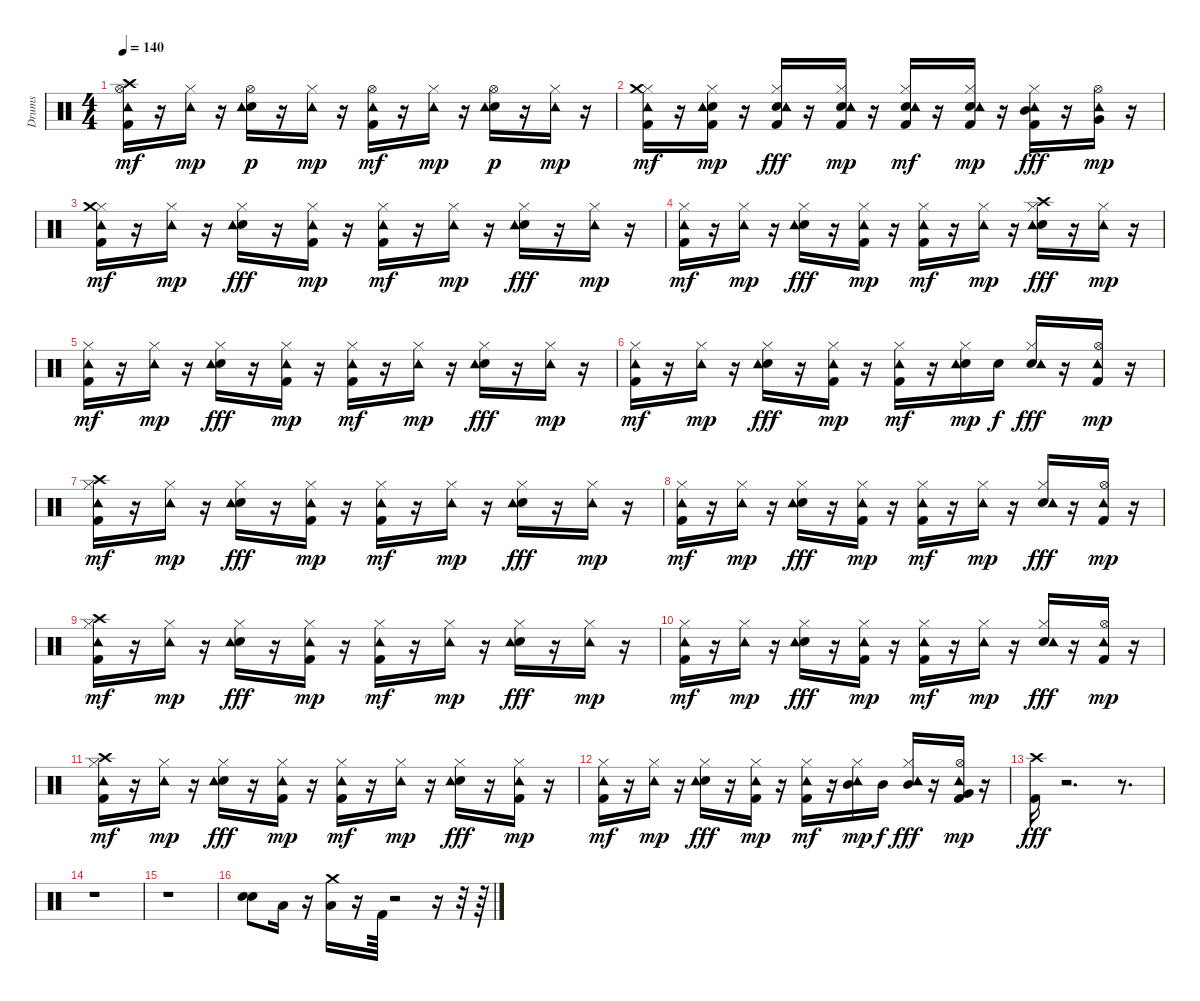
\track ("Drums" "Drums") {instrument percussion}
\staff {score}
\articulation defaults
\ts (4 4)
\tempo 140
\clef neutral
\ks c
("Kick (hit) 2" "Hi-Hat (open)" "Crash high (hit)" "Tambourine (hit)").16{dy mf} r.16 ("Hi-Hat (closed)" "Tambourine (hit)").16{dy mp} r.16 ("Electric Snare (hit)" "Hi-Hat (open)" "Tambourine (hit)").16{dy p} r.16 ("Hi-Hat (closed)" "Tambourine (hit)").16{dy mp} r.16 ("Kick (hit) 2" "Hi-Hat (open)" "Tambourine (hit)").16{dy mf} r.16 ("Hi-Hat (closed)" "Tambourine (hit)").16{dy mp} r.16 ("Electric Snare (hit)" "Hi-Hat (open)" "Tambourine (hit)").16{dy p} r.16 ("Hi-Hat (closed)" "Tambourine (hit)").16{dy mp} r.16 |
("Kick (hit) 2" "Hi-Hat (closed)" "Crash medium (hit)" "Tambourine (hit)").16{dy mf} r.16 ("Kick (hit) 2" "Electric Snare (hit)" "Hi-Hat (closed)" "Tambourine (hit)").16{dy mp} r.16 ("Kick (hit) 2" "Electric Snare (hit)" "Hi-Hat (closed)" "Tambourine (hit)").16{dy fff} r.16 ("Kick (hit) 2" "Electric Snare (hit)" "Hi-Hat (closed)" "Tambourine (hit)").16{dy mp} r.16 ("Kick (hit) 2" "Electric Snare (hit)" "Hi-Hat (closed)" "Tambourine (hit)").16{dy mf} r.16 ("Kick (hit) 2" "Electric Snare (hit)" "Hi-Hat (closed)" "Tambourine (hit)").16{dy mp} r.16 ("Kick (hit) 2" "Mid Tom (hit)" "Hi-Hat (closed)" "Tambourine (hit)").16{dy fff} r.16 ("Very Low Tom (hit)" "Hi-Hat (open)" "Tambourine (hit)").16{dy mp} r.16 |
("Kick (hit) 2" "Hi-Hat (closed)" "Crash medium (hit)" "Tambourine (hit)").16{dy mf} r.16 ("Hi-Hat (closed)" "Tambourine (hit)").16{dy mp} r.16 ("Electric Snare (hit)" "Hi-Hat (closed)" "Tambourine (hit)").16{dy fff} r.16 ("Kick (hit) 2" "Hi-Hat (closed)" "Tambourine (hit)").16{dy mp} r.16 ("Kick (hit) 2" "Hi-Hat (closed)" "Tambourine (hit)").16{dy mf} r.16 ("Hi-Hat (closed)" "Tambourine (hit)").16{dy mp} r.16 ("Electric Snare (hit)" "Hi-Hat (closed)" "Tambourine (hit)").16{dy fff} r.16 ("Hi-Hat (closed)" "Tambourine (hit)").16{dy mp} r.16 |
("Kick (hit) 2" "Hi-Hat (closed)" "Tambourine (hit)").16{dy mf} r.16 ("Hi-Hat (closed)" "Tambourine (hit)").16{dy mp} r.16 ("Electric Snare (hit)" "Hi-Hat (closed)" "Tambourine (hit)").16{dy fff} r.16 ("Kick (hit) 2" "Hi-Hat (closed)" "Tambourine (hit)").16{dy mp} r.16 ("Kick (hit) 2" "Hi-Hat (closed)" "Tambourine (hit)").16{dy mf} r.16 ("Hi-Hat (closed)" "Tambourine (hit)").16{dy mp} r.16 ("Electric Snare (hit)" "Hi-Hat (closed)" "Crash high (hit)" "Tambourine (hit)").16{dy fff} r.16 ("Hi-Hat (closed)" "Tambourine (hit)").16{dy mp} r.16 |
("Kick (hit) 2" "Hi-Hat (closed)" "Tambourine (hit)").16{dy mf} r.16 ("Hi-Hat (closed)" "Tambourine (hit)").16{dy mp} r.16 ("Electric Snare (hit)" "Hi-Hat (closed)" "Tambourine (hit)").16{dy fff} r.16 ("Kick (hit) 2" "Hi-Hat (closed)" "Tambourine (hit)").16{dy mp} r.16 ("Kick (hit) 2" "Hi-Hat (closed)" "Tambourine (hit)").16{dy mf} r.16 ("Hi-Hat (closed)" "Tambourine (hit)").16{dy mp} r.16 ("Electric Snare (hit)" "Hi-Hat (closed)" "Tambourine (hit)").16{dy fff} r.16 ("Hi-Hat (closed)" "Tambourine (hit)").16{dy mp} r.16 |
("Kick (hit) 2" "Hi-Hat (closed)" "Tambourine (hit)").16{dy mf} r.16 ("Hi-Hat (closed)" "Tambourine (hit)").16{dy mp} r.16 ("Electric Snare (hit)" "Hi-Hat (closed)" "Tambourine (hit)").16{dy fff} r.16 ("Kick (hit) 2" "Hi-Hat (closed)" "Tambourine (hit)").16{dy mp} r.16 ("Kick (hit) 2" "Hi-Hat (closed)" "Tambourine (hit)").16{dy mf} r.16 ("Electric Snare (hit)" "Hi-Hat (closed)" "Tambourine (hit)").16{dy mp} "Electric Snare (hit)".16{dy f} ("Electric Snare (hit)" "Hi-Hat (closed)" "Tambourine (hit)").16{dy fff} r.16 ("Kick (hit) 2" "Hi-Hat (open)" "Tambourine (hit)").16{dy mp} r.16 |
("Kick (hit) 2" "Hi-Hat (closed)" "Crash high (hit)" "Tambourine (hit)").16{dy mf} r.16 ("Hi-Hat (closed)" "Tambourine (hit)").16{dy mp} r.16 ("Electric Snare (hit)" "Hi-Hat (closed)" "Tambourine (hit)").16{dy fff} r.16 ("Kick (hit) 2" "Hi-Hat (closed)" "Tambourine (hit)").16{dy mp} r.16 ("Kick (hit) 2" "Hi-Hat (closed)" "Tambourine (hit)").16{dy mf} r.16 ("Hi-Hat (closed)" "Tambourine (hit)").16{dy mp} r.16 ("Electric Snare (hit)" "Hi-Hat (closed)" "Tambourine (hit)").16{dy fff} r.16 ("Hi-Hat (closed)" "Tambourine (hit)").16{dy mp} r.16 |
("Kick (hit) 2" "Hi-Hat (closed)" "Tambourine (hit)").16{dy mf} r.16 ("Hi-Hat (closed)" "Tambourine (hit)").16{dy mp} r.16 ("Electric Snare (hit)" "Hi-Hat (closed)" "Tambourine (hit)").16{dy fff} r.16 ("Kick (hit) 2" "Hi-Hat (closed)" "Tambourine (hit)").16{dy mp} r.16 ("Kick (hit) 2" "Hi-Hat (closed)" "Tambourine (hit)").16{dy mf} r.16 ("Hi-Hat (closed)" "Tambourine (hit)").16{dy mp} r.16 ("Electric Snare (hit)" "Hi-Hat (closed)" "Tambourine (hit)").16{dy fff} r.16 ("Kick (hit) 2" "Hi-Hat (open)" "Tambourine (hit)").16{dy mp} r.16 |
("Kick (hit) 2" "Hi-Hat (closed)" "Crash high (hit)" "Tambourine (hit)").16{dy mf} r.16 ("Hi-Hat (closed)" "Tambourine (hit)").16{dy mp} r.16 ("Electric Snare (hit)" "Hi-Hat (closed)" "Tambourine (hit)").16{dy fff} r.16 ("Kick (hit) 2" "Hi-Hat (closed)" "Tambourine (hit)").16{dy mp} r.16 ("Kick (hit) 2" "Hi-Hat (closed)" "Tambourine (hit)").16{dy mf} r.16 ("Hi-Hat (closed)" "Tambourine (hit)").16{dy mp} r.16 ("Electric Snare (hit)" "Hi-Hat (closed)" "Tambourine (hit)").16{dy fff} r.16 ("Hi-Hat (closed)" "Tambourine (hit)").16{dy mp} r.16 |
("Kick (hit) 2" "Hi-Hat (closed)" "Tambourine (hit)").16{dy mf} r.16 ("Hi-Hat (closed)" "Tambourine (hit)").16{dy mp} r.16 ("Electric Snare (hit)" "Hi-Hat (closed)" "Tambourine (hit)").16{dy fff} r.16 ("Kick (hit) 2" "Hi-Hat (closed)" "Tambourine (hit)").16{dy mp} r.16 ("Kick (hit) 2" "Hi-Hat (closed)" "Tambourine (hit)").16{dy mf} r.16 ("Hi-Hat (closed)" "Tambourine (hit)").16{dy mp} r.16 ("Electric Snare (hit)" "Hi-Hat (closed)" "Tambourine (hit)").16{dy fff} r.16 ("Kick (hit) 2" "Hi-Hat (open)" "Tambourine (hit)").16{dy mp} r.16 |
("Kick (hit) 2" "Hi-Hat (closed)" "Crash high (hit)" "Tambourine (hit)").16{dy mf} r.16 ("Hi-Hat (closed)" "Tambourine (hit)").16{dy mp} r.16 ("Electric Snare (hit)" "Hi-Hat (closed)" "Tambourine (hit)").16{dy fff} r.16 ("Kick (hit) 2" "Hi-Hat (closed)" "Tambourine (hit)").16{dy mp} r.16 ("Kick (hit) 2" "Hi-Hat (closed)" "Tambourine (hit)").16{dy mf} r.16 ("Hi-Hat (closed)" "Tambourine (hit)").16{dy mp} r.16 ("Electric Snare (hit)" "Hi-Hat (closed)" "Tambourine (hit)").16{dy fff} r.16 ("Kick (hit) 2" "Hi-Hat (closed)" "Tambourine (hit)").16{dy mp} r.16 |
("Kick (hit) 2" "Hi-Hat (closed)" "Tambourine (hit)").16{dy mf} r.16 ("Hi-Hat (closed)" "Tambourine (hit)").16{dy mp} r.16 ("Electric Snare (hit)" "Hi-Hat (closed)" "Tambourine (hit)").16{dy fff} r.16 ("Kick (hit) 2" "Hi-Hat (closed)" "Tambourine (hit)").16{dy mp} r.16 ("Kick (hit) 2" "Hi-Hat (closed)" "Tambourine (hit)").16{dy mf} r.16 ("Mid Tom (hit)" "Hi-Hat (closed)" "Tambourine (hit)").16{dy mp} "Mid Tom (hit)".16{dy f} ("Mid Tom (hit)" "Hi-Hat (closed)" "Tambourine (hit)").16{dy fff} r.16 ("Kick (hit) 2" "Very Low Tom (hit)" "Hi-Hat (open)" "Tambourine (hit)").16{dy mp} r.16 |
("Kick (hit) 2" "Crash high (hit)").16{dy fff} r.2{d} r.8{d} |
r.1 |
r.1 |
("Electric Snare (hit)" "Electric Snare (hit)").8 "Low Tom (hit)".16 r.16 ("Low Floor Tom (hit)" "Crash medium (hit)").16 r.16 "Kick (hit) 2".64 r.2 r.16 r.32 r.64
